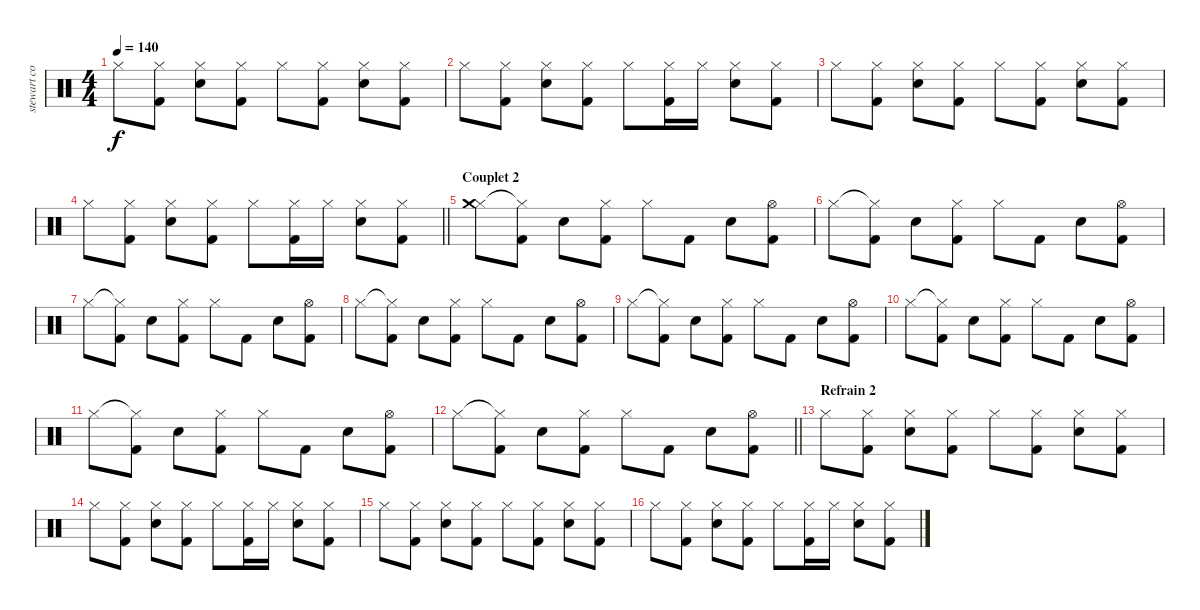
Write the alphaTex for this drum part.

\track ("stewart copeland" "stewart co") {instrument percussion}
\staff {score}
\articulation defaults
\ts (4 4)
\tempo 140
\clef neutral
\ks c "Hi-Hat (closed)".8{dy f}
("Hi-Hat (closed)" "Kick (hit) 2").8 ("Hi-Hat (closed)" "Snare (hit) 2").8 ("Hi-Hat (closed)" "Kick (hit) 2").8 "Hi-Hat (closed)".8 ("Hi-Hat (closed)" "Kick (hit) 2").8 ("Hi-Hat (closed)" "Snare (hit) 2").8 ("Hi-Hat (closed)" "Kick (hit) 2").8 |
"Hi-Hat (closed)".8 ("Hi-Hat (closed)" "Kick (hit) 2").8 ("Hi-Hat (closed)" "Snare (hit) 2").8 ("Hi-Hat (closed)" "Kick (hit) 2").8 "Hi-Hat (closed)".8 ("Hi-Hat (closed)" "Kick (hit) 2").16 "Hi-Hat (closed)".16 ("Hi-Hat (closed)" "Snare (hit) 2").8 ("Hi-Hat (closed)" "Kick (hit) 2").8 |
"Hi-Hat (closed)".8 ("Hi-Hat (closed)" "Kick (hit) 2").8 ("Hi-Hat (closed)" "Snare (hit) 2").8 ("Hi-Hat (closed)" "Kick (hit) 2").8 "Hi-Hat (closed)".8 ("Hi-Hat (closed)" "Kick (hit) 2").8 ("Hi-Hat (closed)" "Snare (hit) 2").8 ("Hi-Hat (closed)" "Kick (hit) 2").8 |
\barLineRight lightlight "Hi-Hat (closed)".8
("Hi-Hat (closed)" "Kick (hit) 2").8 ("Hi-Hat (closed)" "Snare (hit) 2").8 ("Hi-Hat (closed)" "Kick (hit) 2").8 "Hi-Hat (closed)".8 ("Hi-Hat (closed)" "Kick (hit) 2").16 "Hi-Hat (closed)".16 ("Hi-Hat (closed)" "Snare (hit) 2").8 ("Hi-Hat (closed)" "Kick (hit) 2").8 |
\section ("" "Couplet 2")
("Hi-Hat (closed)" "Crash medium (hit)").8 ("Hi-Hat (closed)"{t} "Kick (hit) 2").8 "Snare (hit) 2".8 ("Hi-Hat (closed)" "Kick (hit) 2").8 "Hi-Hat (closed)".8 "Kick (hit) 2".8 "Snare (hit) 2".8 ("Hi-Hat (open)" "Kick (hit) 2").8 |
"Hi-Hat (closed)".8 ("Hi-Hat (closed)"{t} "Kick (hit) 2").8 "Snare (hit) 2".8 ("Hi-Hat (closed)" "Kick (hit) 2").8 "Hi-Hat (closed)".8 "Kick (hit) 2".8 "Snare (hit) 2".8 ("Hi-Hat (open)" "Kick (hit) 2").8 |
"Hi-Hat (closed)".8 ("Hi-Hat (closed)"{t} "Kick (hit) 2").8 "Snare (hit) 2".8 ("Hi-Hat (closed)" "Kick (hit) 2").8 "Hi-Hat (closed)".8 "Kick (hit) 2".8 "Snare (hit) 2".8 ("Hi-Hat (open)" "Kick (hit) 2").8 |
"Hi-Hat (closed)".8 ("Hi-Hat (closed)"{t} "Kick (hit) 2").8 "Snare (hit) 2".8 ("Hi-Hat (closed)" "Kick (hit) 2").8 "Hi-Hat (closed)".8 "Kick (hit) 2".8 "Snare (hit) 2".8 ("Hi-Hat (open)" "Kick (hit) 2").8 |
"Hi-Hat (closed)".8 ("Hi-Hat (closed)"{t} "Kick (hit) 2").8 "Snare (hit) 2".8 ("Hi-Hat (closed)" "Kick (hit) 2").8 "Hi-Hat (closed)".8 "Kick (hit) 2".8 "Snare (hit) 2".8 ("Hi-Hat (open)" "Kick (hit) 2").8 |
"Hi-Hat (closed)".8 ("Hi-Hat (closed)"{t} "Kick (hit) 2").8 "Snare (hit) 2".8 ("Hi-Hat (closed)" "Kick (hit) 2").8 "Hi-Hat (closed)".8 "Kick (hit) 2".8 "Snare (hit) 2".8 ("Hi-Hat (open)" "Kick (hit) 2").8 |
"Hi-Hat (closed)".8 ("Hi-Hat (closed)"{t} "Kick (hit) 2").8 "Snare (hit) 2".8 ("Hi-Hat (closed)" "Kick (hit) 2").8 "Hi-Hat (closed)".8 "Kick (hit) 2".8 "Snare (hit) 2".8 ("Hi-Hat (open)" "Kick (hit) 2").8 |
\barLineRight lightlight "Hi-Hat (closed)".8
("Hi-Hat (closed)"{t} "Kick (hit) 2").8 "Snare (hit) 2".8 ("Hi-Hat (closed)" "Kick (hit) 2").8 "Hi-Hat (closed)".8 "Kick (hit) 2".8 "Snare (hit) 2".8 ("Hi-Hat (open)" "Kick (hit) 2").8 |
\section ("" "Refrain 2")
"Hi-Hat (closed)".8 ("Hi-Hat (closed)" "Kick (hit) 2").8 ("Hi-Hat (closed)" "Snare (hit) 2").8 ("Hi-Hat (closed)" "Kick (hit) 2").8 "Hi-Hat (closed)".8 ("Hi-Hat (closed)" "Kick (hit) 2").8 ("Hi-Hat (closed)" "Snare (hit) 2").8 ("Hi-Hat (closed)" "Kick (hit) 2").8 |
"Hi-Hat (closed)".8 ("Hi-Hat (closed)" "Kick (hit) 2").8 ("Hi-Hat (closed)" "Snare (hit) 2").8 ("Hi-Hat (closed)" "Kick (hit) 2").8 "Hi-Hat (closed)".8 ("Hi-Hat (closed)" "Kick (hit) 2").16 "Hi-Hat (closed)".16 ("Hi-Hat (closed)" "Snare (hit) 2").8 ("Hi-Hat (closed)" "Kick (hit) 2").8 |
"Hi-Hat (closed)".8 ("Hi-Hat (closed)" "Kick (hit) 2").8 ("Hi-Hat (closed)" "Snare (hit) 2").8 ("Hi-Hat (closed)" "Kick (hit) 2").8 "Hi-Hat (closed)".8 ("Hi-Hat (closed)" "Kick (hit) 2").8 ("Hi-Hat (closed)" "Snare (hit) 2").8 ("Hi-Hat (closed)" "Kick (hit) 2").8 |
"Hi-Hat (closed)".8 ("Hi-Hat (closed)" "Kick (hit) 2").8 ("Hi-Hat (closed)" "Snare (hit) 2").8 ("Hi-Hat (closed)" "Kick (hit) 2").8 "Hi-Hat (closed)".8 ("Hi-Hat (closed)" "Kick (hit) 2").16 "Hi-Hat (closed)".16 ("Hi-Hat (closed)" "Snare (hit) 2").8 ("Hi-Hat (closed)" "Kick (hit) 2").8
